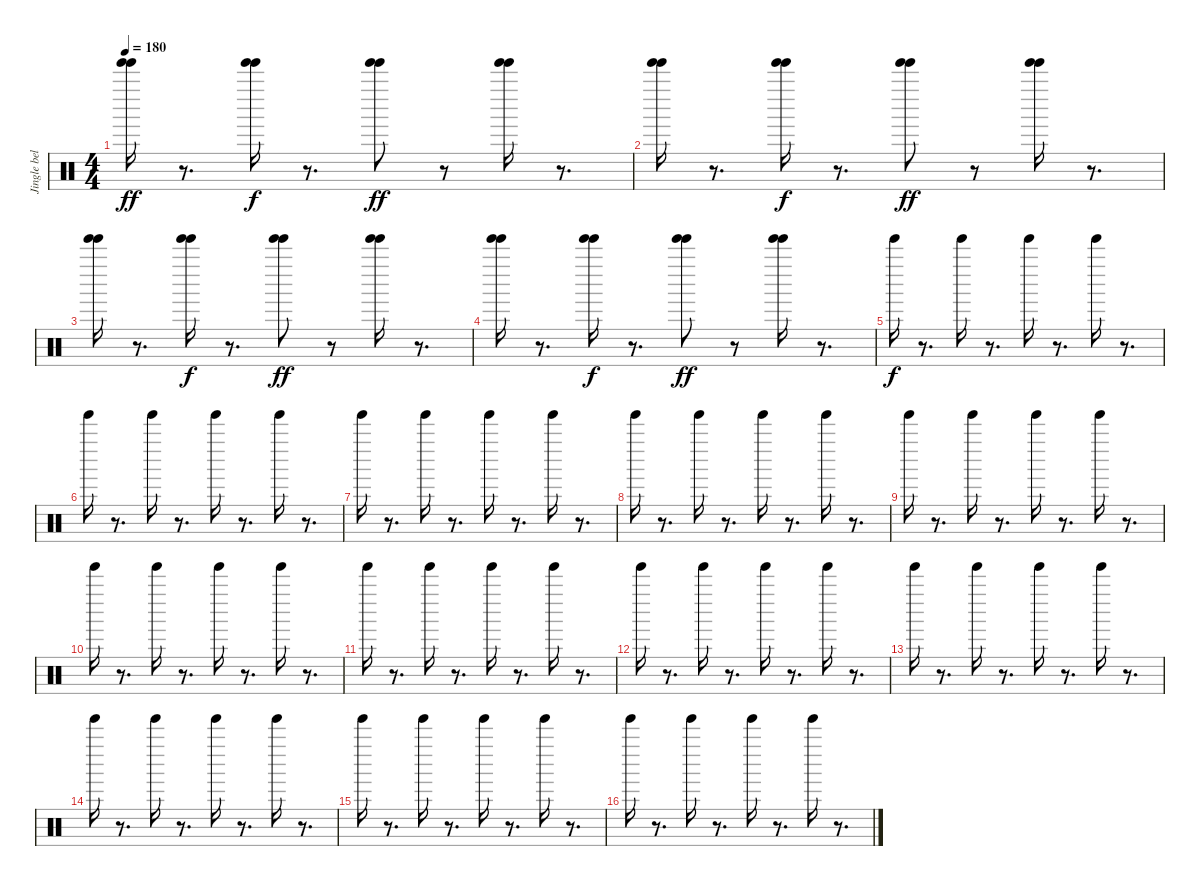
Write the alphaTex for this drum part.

\track ("Jingle bell" "Jingle bel") {instrument percussion}
\staff {score}
\articulation defaults
\ts (4 4)
\tempo 180
\clef neutral
\ks c
("Tinkle Bell (hit)" "Tinkle Bell (hit)").16{dy ff} r.8{d} ("Tinkle Bell (hit)" "Tinkle Bell (hit)").16{dy f} r.8{d} ("Tinkle Bell (hit)" "Tinkle Bell (hit)").8{dy ff} r.8 ("Tinkle Bell (hit)" "Tinkle Bell (hit)").16 r.8{d} |
("Tinkle Bell (hit)" "Tinkle Bell (hit)").16 r.8{d} ("Tinkle Bell (hit)" "Tinkle Bell (hit)").16{dy f} r.8{d} ("Tinkle Bell (hit)" "Tinkle Bell (hit)").8{dy ff} r.8 ("Tinkle Bell (hit)" "Tinkle Bell (hit)").16 r.8{d} |
("Tinkle Bell (hit)" "Tinkle Bell (hit)").16 r.8{d} ("Tinkle Bell (hit)" "Tinkle Bell (hit)").16{dy f} r.8{d} ("Tinkle Bell (hit)" "Tinkle Bell (hit)").8{dy ff} r.8 ("Tinkle Bell (hit)" "Tinkle Bell (hit)").16 r.8{d} |
("Tinkle Bell (hit)" "Tinkle Bell (hit)").16 r.8{d} ("Tinkle Bell (hit)" "Tinkle Bell (hit)").16{dy f} r.8{d} ("Tinkle Bell (hit)" "Tinkle Bell (hit)").8{dy ff} r.8 ("Tinkle Bell (hit)" "Tinkle Bell (hit)").16 r.8{d} |
"Tinkle Bell (hit)".16{dy f} r.8{d} "Tinkle Bell (hit)".16 r.8{d} "Tinkle Bell (hit)".16 r.8{d} "Tinkle Bell (hit)".16 r.8{d} |
"Tinkle Bell (hit)".16 r.8{d} "Tinkle Bell (hit)".16 r.8{d} "Tinkle Bell (hit)".16 r.8{d} "Tinkle Bell (hit)".16 r.8{d} |
"Tinkle Bell (hit)".16 r.8{d} "Tinkle Bell (hit)".16 r.8{d} "Tinkle Bell (hit)".16 r.8{d} "Tinkle Bell (hit)".16 r.8{d} |
"Tinkle Bell (hit)".16 r.8{d} "Tinkle Bell (hit)".16 r.8{d} "Tinkle Bell (hit)".16 r.8{d} "Tinkle Bell (hit)".16 r.8{d} |
"Tinkle Bell (hit)".16 r.8{d} "Tinkle Bell (hit)".16 r.8{d} "Tinkle Bell (hit)".16 r.8{d} "Tinkle Bell (hit)".16 r.8{d} |
"Tinkle Bell (hit)".16 r.8{d} "Tinkle Bell (hit)".16 r.8{d} "Tinkle Bell (hit)".16 r.8{d} "Tinkle Bell (hit)".16 r.8{d} |
"Tinkle Bell (hit)".16 r.8{d} "Tinkle Bell (hit)".16 r.8{d} "Tinkle Bell (hit)".16 r.8{d} "Tinkle Bell (hit)".16 r.8{d} |
"Tinkle Bell (hit)".16 r.8{d} "Tinkle Bell (hit)".16 r.8{d} "Tinkle Bell (hit)".16 r.8{d} "Tinkle Bell (hit)".16 r.8{d} |
"Tinkle Bell (hit)".16 r.8{d} "Tinkle Bell (hit)".16 r.8{d} "Tinkle Bell (hit)".16 r.8{d} "Tinkle Bell (hit)".16 r.8{d} |
"Tinkle Bell (hit)".16 r.8{d} "Tinkle Bell (hit)".16 r.8{d} "Tinkle Bell (hit)".16 r.8{d} "Tinkle Bell (hit)".16 r.8{d} |
"Tinkle Bell (hit)".16 r.8{d} "Tinkle Bell (hit)".16 r.8{d} "Tinkle Bell (hit)".16 r.8{d} "Tinkle Bell (hit)".16 r.8{d} |
"Tinkle Bell (hit)".16 r.8{d} "Tinkle Bell (hit)".16 r.8{d} "Tinkle Bell (hit)".16 r.8{d} "Tinkle Bell (hit)".16 r.8{d}
